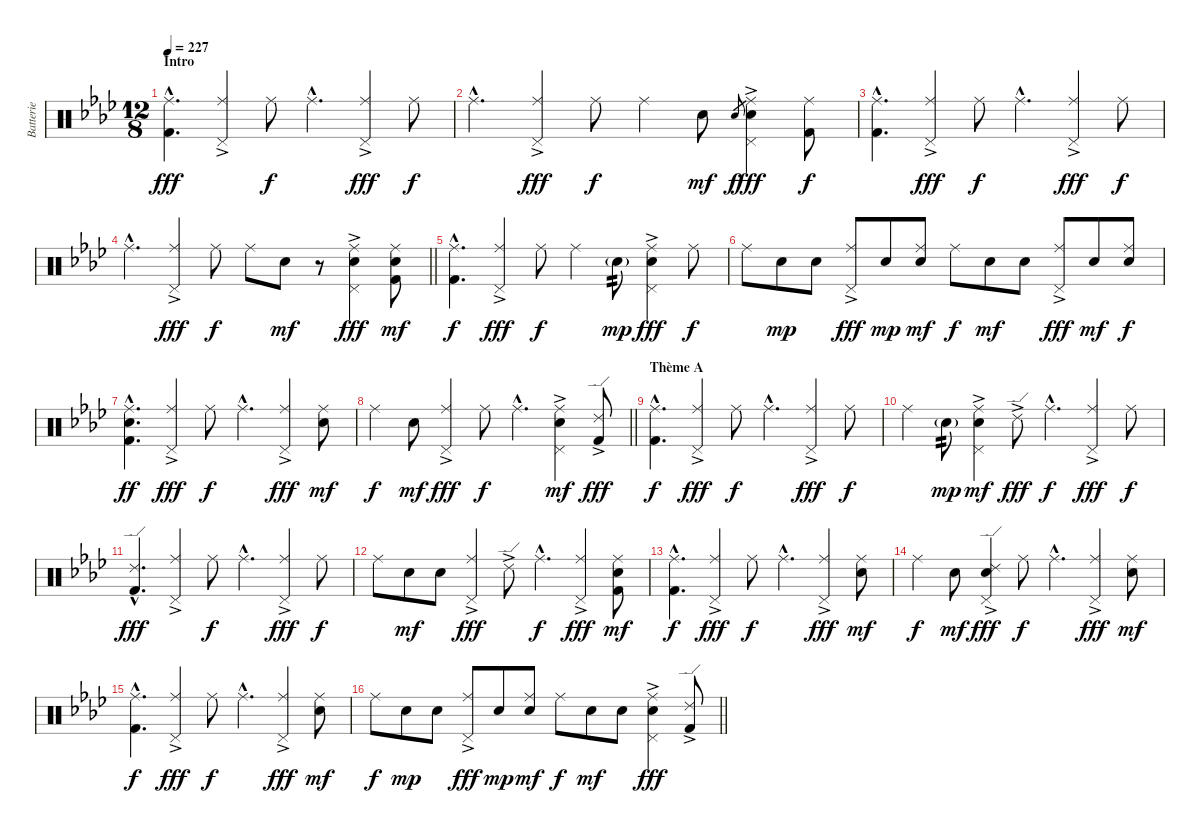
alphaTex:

\track ("Batterie" "Batterie") {instrument percussion}
\staff {score}
\articulation defaults
\ts (12 8)
\section ("" "Intro")
\tempo 227
\clef neutral
\ks fminor
("Ride (middle)"{hac} "Kick (hit) 2"{hac}).4{d dy fff volume 4 balance 8} ("Ride (middle)" "Pedal Hi-Hat (hit)"{ac}).4 "Ride (middle)".8{dy f} "Ride (middle)"{hac}.4{d} ("Ride (middle)" "Pedal Hi-Hat (hit)"{ac}).4{dy fff} "Ride (middle)".8{dy f} |
"Ride (middle)"{hac}.4{d volume 5 balance 8} ("Ride (middle)" "Pedal Hi-Hat (hit)"{ac}).4{dy fff} "Ride (middle)".8{dy f} "Ride (middle)".4 "Snare (hit) 2".8{dy mf} "Snare (hit) 2".8{gr dy f} ("Ride (middle)" "Pedal Hi-Hat (hit)"{ac} "Snare (hit) 2").4{dy fff} ("Ride (middle)" "Kick (hit) 2").8{dy f} |
("Ride (middle)"{hac} "Kick (hit) 2"{hac}).4{d volume 6 balance 8} ("Ride (middle)" "Pedal Hi-Hat (hit)"{ac}).4{dy fff} "Ride (middle)".8{dy f} "Ride (middle)"{hac}.4{d} ("Ride (middle)" "Pedal Hi-Hat (hit)"{ac}).4{dy fff} "Ride (middle)".8{dy f} |
\barLineRight lightlight "Ride (middle)"{hac}.4{d volume 7 balance 8}
("Ride (middle)" "Pedal Hi-Hat (hit)"{ac}).4{dy fff} "Ride (middle)".8{dy f} "Ride (middle)".8 "Snare (hit) 2".8{dy mf} r.8 ("Ride (middle)" "Pedal Hi-Hat (hit)"{ac} "Snare (hit) 2").4{dy fff} ("Ride (middle)" "Snare (hit) 2" "Kick (hit) 2").8{dy mf} |
("Ride (middle)"{hac} "Kick (hit) 2"{hac}).4{d dy f volume 8 balance 8} ("Ride (middle)" "Pedal Hi-Hat (hit)"{ac}).4{dy fff} "Ride (middle)".8{dy f} "Ride (middle)".4 "Snare (hit) 2"{g}.8{tp 2 dy mp} ("Ride (middle)" "Pedal Hi-Hat (hit)"{ac} "Snare (hit) 2").4{dy fff} "Ride (middle)".8{dy f} |
"Ride (middle)".8{volume 9 balance 8} "Snare (hit) 2".8{dy mp} "Snare (hit) 2".8 ("Ride (middle)" "Pedal Hi-Hat (hit)"{ac}).8{dy fff} "Snare (hit) 2".8{dy mp} ("Ride (middle)" "Snare (hit) 2").8{dy mf} "Ride (middle)".8{dy f} "Snare (hit) 2".8{dy mf} "Snare (hit) 2".8 ("Ride (middle)" "Pedal Hi-Hat (hit)"{ac}).8{dy fff} "Snare (hit) 2".8{dy mf} ("Ride (middle)" "Snare (hit) 2").8{dy f} |
("Ride (middle)"{hac} "Snare (hit) 2"{hac} "Kick (hit) 2"{hac}).4{d dy ff volume 10 balance 8} ("Ride (middle)" "Pedal Hi-Hat (hit)"{ac}).4{dy fff} "Ride (middle)".8{dy f} "Ride (middle)"{hac}.4{d} ("Ride (middle)" "Pedal Hi-Hat (hit)"{ac}).4{dy fff} ("Ride (middle)" "Snare (hit) 2").8{dy mf} |
\barLineRight lightlight "Ride (middle)".4{dy f volume 11 balance 8} "Snare (hit) 2".8{dy mf}
("Ride (middle)" "Pedal Hi-Hat (hit)"{ac}).4{dy fff} "Ride (middle)".8{dy f} "Ride (middle)"{hac}.4{d} ("Ride (middle)" "Pedal Hi-Hat (hit)"{ac} "Snare (hit) 2").4{dy mf} ("Ride (edge) 2"{ac} "Kick (hit) 2").8{dy fff} |
\section ("" "Thème A")
("Ride (middle)"{hac} "Kick (hit) 2"{hac}).4{d dy f volume 12 balance 8} ("Ride (middle)" "Pedal Hi-Hat (hit)"{ac}).4{dy fff} "Ride (middle)".8{dy f} "Ride (middle)"{hac}.4{d} ("Ride (middle)" "Pedal Hi-Hat (hit)"{ac}).4{dy fff} "Ride (middle)".8{dy f} |
"Ride (middle)".4 "Snare (hit) 2"{g}.8{tp 2 dy mp} ("Ride (middle)" "Pedal Hi-Hat (hit)"{ac} "Snare (hit) 2").4{dy mf} "Ride (edge) 2"{ac}.8{dy fff} "Ride (middle)"{hac}.4{d dy f} ("Ride (middle)" "Pedal Hi-Hat (hit)"{ac}).4{dy fff} "Ride (middle)".8{dy f} |
("Ride (edge) 2"{hac} "Kick (hit) 2"{hac}).4{d dy fff} ("Ride (middle)" "Pedal Hi-Hat (hit)"{ac}).4 "Ride (middle)".8{dy f} "Ride (middle)"{hac}.4{d} ("Ride (middle)" "Pedal Hi-Hat (hit)"{ac}).4{dy fff} "Ride (middle)".8{dy f} |
"Ride (middle)".8 "Snare (hit) 2".8{dy mf} "Snare (hit) 2".8 ("Ride (middle)" "Pedal Hi-Hat (hit)"{ac}).4{dy fff} "Ride (edge) 2"{ac}.8 "Ride (middle)"{hac}.4{d dy f} ("Ride (middle)" "Pedal Hi-Hat (hit)"{ac}).4{dy fff} ("Ride (middle)" "Snare (hit) 2" "Kick (hit) 2").8{dy mf} |
("Ride (middle)"{hac} "Kick (hit) 2"{hac}).4{d dy f} ("Ride (middle)" "Pedal Hi-Hat (hit)"{ac}).4{dy fff} "Ride (middle)".8{dy f} "Ride (middle)"{hac}.4{d} ("Ride (middle)" "Pedal Hi-Hat (hit)"{ac}).4{dy fff} ("Ride (middle)" "Snare (hit) 2").8{dy mf} |
"Ride (middle)".4{dy f} "Snare (hit) 2".8{dy mf} ("Ride (edge) 2"{ac} "Pedal Hi-Hat (hit)"{ac} "Snare (hit) 2").4{dy fff} "Ride (middle)".8{dy f} "Ride (middle)"{hac}.4{d} ("Ride (middle)" "Pedal Hi-Hat (hit)"{ac}).4{dy fff} ("Ride (middle)" "Snare (hit) 2").8{dy mf} |
("Ride (middle)"{hac} "Kick (hit) 2"{hac}).4{d dy f} ("Ride (middle)" "Pedal Hi-Hat (hit)"{ac}).4{dy fff} "Ride (middle)".8{dy f} "Ride (middle)"{hac}.4{d} ("Ride (middle)" "Pedal Hi-Hat (hit)"{ac}).4{dy fff} ("Ride (middle)" "Snare (hit) 2").8{dy mf} |
\barLineRight lightlight "Ride (middle)".8{dy f} "Snare (hit) 2".8{dy mp} "Snare (hit) 2".8
("Ride (middle)" "Pedal Hi-Hat (hit)"{ac}).8{dy fff} "Snare (hit) 2".8{dy mp} ("Ride (middle)" "Snare (hit) 2").8{dy mf} "Ride (middle)".8{dy f} "Snare (hit) 2".8{dy mf} "Snare (hit) 2".8 ("Ride (middle)" "Pedal Hi-Hat (hit)"{ac} "Snare (hit) 2").4{dy fff} ("Ride (edge) 2"{ac} "Kick (hit) 2").8
